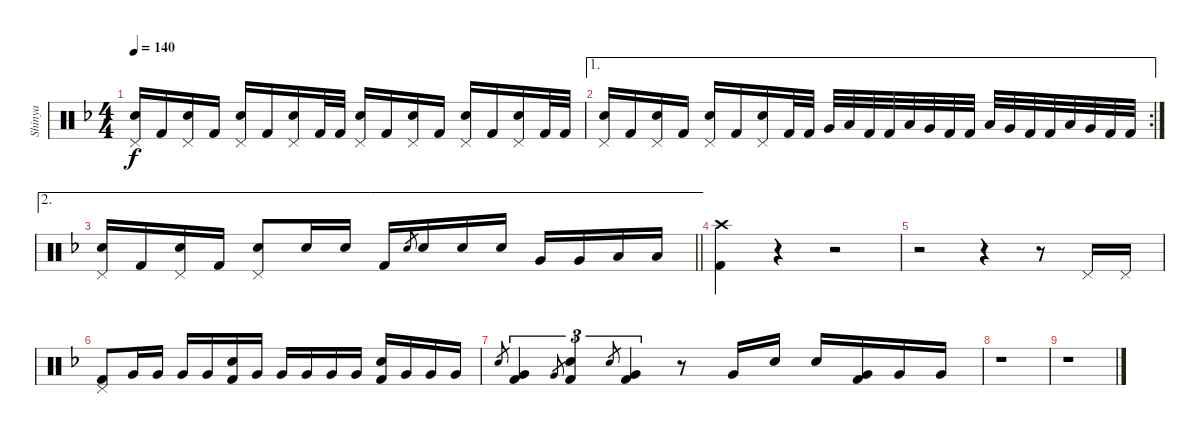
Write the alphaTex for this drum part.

\track ("Shinya" "Shinya") {instrument percussion}
\staff {score}
\articulation defaults
\ts (4 4)
\tempo 140
\clef neutral
\ks dminor
("Pedal Hi-Hat (hit)" "Electric Snare (hit)").16{dy f} "Kick (hit) 2".16 ("Pedal Hi-Hat (hit)" "Electric Snare (hit)").16 "Kick (hit) 2".16 ("Pedal Hi-Hat (hit)" "Electric Snare (hit)").16 "Kick (hit) 2".16 ("Pedal Hi-Hat (hit)" "Electric Snare (hit)").16 "Kick (hit) 2".32 "Kick (hit) 2".32 ("Pedal Hi-Hat (hit)" "Electric Snare (hit)").16 "Kick (hit) 2".16 ("Pedal Hi-Hat (hit)" "Electric Snare (hit)").16 "Kick (hit) 2".16 ("Pedal Hi-Hat (hit)" "Electric Snare (hit)").16 "Kick (hit) 2".16 ("Pedal Hi-Hat (hit)" "Electric Snare (hit)").16 "Kick (hit) 2".32 "Kick (hit) 2".32 |
\ae 1
\rc 2
("Pedal Hi-Hat (hit)" "Electric Snare (hit)").16 "Kick (hit) 2".16 ("Pedal Hi-Hat (hit)" "Electric Snare (hit)").16 "Kick (hit) 2".16 ("Pedal Hi-Hat (hit)" "Electric Snare (hit)").16 "Kick (hit) 2".16 ("Pedal Hi-Hat (hit)" "Electric Snare (hit)").16 "Kick (hit) 2".32 "Kick (hit) 2".32 "Very Low Tom (hit)".32 "Low Tom (hit)".32 "Kick (hit) 2".32 "Kick (hit) 2".32 "Low Floor Tom (hit)".32 "Very Low Tom (hit)".32 "Kick (hit) 2".32 "Kick (hit) 2".32 "Low Floor Tom (hit)".32 "Very Low Tom (hit)".32 "Kick (hit) 2".32 "Kick (hit) 2".32 "Low Floor Tom (hit)".32 "Very Low Tom (hit)".32 "Kick (hit) 2".32 "Kick (hit) 2".32 |
\ae 2
\barLineRight lightlight
("Pedal Hi-Hat (hit)" "Electric Snare (hit)").16 "Kick (hit) 2".16 ("Pedal Hi-Hat (hit)" "Electric Snare (hit)").16 "Kick (hit) 2".16 ("Pedal Hi-Hat (hit)" "Electric Snare (hit)").8 "Electric Snare (hit)".16 "Electric Snare (hit)".16 "Kick (hit) 2".16 "Electric Snare (hit)".8{gr} "Electric Snare (hit)".16 "Electric Snare (hit)".16 "Electric Snare (hit)".16 "Very Low Tom (hit)".16 "Very Low Tom (hit)".16 "Low Tom (hit)".16 "Low Tom (hit)".16 |
("Crash high (hit)" "Kick (hit) 2").4 r.4 r.2 |
r.2 r.4 r.8 "Pedal Hi-Hat (hit)".16 "Pedal Hi-Hat (hit)".16 |
("Pedal Hi-Hat (hit)" "Kick (hit) 2").8 "Very Low Tom (hit)".16 "Very Low Tom (hit)".16 "Very Low Tom (hit)".16 "Very Low Tom (hit)".16 ("Electric Snare (hit)" "Kick (hit) 2").16 "Very Low Tom (hit)".16 "Very Low Tom (hit)".16 "Very Low Tom (hit)".16 "Very Low Tom (hit)".16 "Very Low Tom (hit)".16 ("Electric Snare (hit)" "Kick (hit) 2").16 "Very Low Tom (hit)".16 "Very Low Tom (hit)".16 "Very Low Tom (hit)".16 |
"Electric Snare (hit)".8{gr} ("Very Low Tom (hit)" "Kick (hit) 2").4{tu (3 2)} "Very Low Tom (hit)".8{gr} ("Electric Snare (hit)" "Kick (hit) 2").4{tu (3 2)} "Electric Snare (hit)".8{gr} ("Very Low Tom (hit)" "Kick (hit) 2").4{tu (3 2)} r.8 "Very Low Tom (hit)".16 "Electric Snare (hit)".16 "Electric Snare (hit)".16 ("Very Low Tom (hit)" "Kick (hit) 2").16 "Very Low Tom (hit)".16 "Very Low Tom (hit)".16 |
r.1 |
r.1
